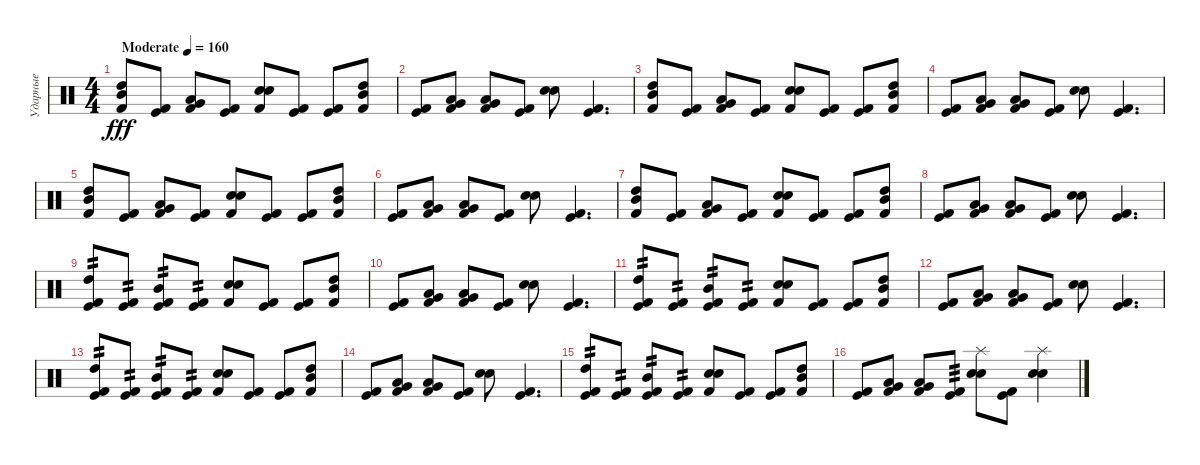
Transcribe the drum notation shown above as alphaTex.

\track ("Ударные" "Ударные") {instrument percussion}
\staff {score}
\articulation defaults
\ts (4 4)
\tempo (160 "Moderate")
\clef neutral
\ks c
("Kick (hit) 2" "Mid Tom (hit)" "High Tom (hit)").8{dy fff} ("Kick (hit) 2" "Kick (hit)").8 ("Kick (hit) 2" "Very Low Tom (hit)" "Low Tom (hit)").8 ("Kick (hit) 2" "Kick (hit)").8 ("Kick (hit) 2" "Electric Snare (hit)" "Snare (hit) 2").8 ("Kick (hit) 2" "Kick (hit)").8 ("Kick (hit) 2" "Kick (hit)").8 ("Kick (hit) 2" "Mid Tom (hit)" "High Tom (hit)").8 |
("Kick (hit) 2" "Kick (hit)").8 ("Kick (hit) 2" "Very Low Tom (hit)" "Low Tom (hit)").8 ("Kick (hit) 2" "Low Floor Tom (hit)" "Very Low Tom (hit)").8 ("Kick (hit) 2" "Kick (hit)").8 ("Electric Snare (hit)" "Snare (hit) 2").8 ("Kick (hit) 2" "Kick (hit)").4{d} |
("Kick (hit) 2" "Mid Tom (hit)" "High Tom (hit)").8 ("Kick (hit) 2" "Kick (hit)").8 ("Kick (hit) 2" "Very Low Tom (hit)" "Low Tom (hit)").8 ("Kick (hit) 2" "Kick (hit)").8 ("Kick (hit) 2" "Electric Snare (hit)" "Snare (hit) 2").8 ("Kick (hit) 2" "Kick (hit)").8 ("Kick (hit) 2" "Kick (hit)").8 ("Kick (hit) 2" "Mid Tom (hit)" "High Tom (hit)").8 |
("Kick (hit) 2" "Kick (hit)").8 ("Kick (hit) 2" "Very Low Tom (hit)" "Low Tom (hit)").8 ("Kick (hit) 2" "Low Floor Tom (hit)" "Very Low Tom (hit)").8 ("Kick (hit) 2" "Kick (hit)").8 ("Electric Snare (hit)" "Snare (hit) 2").8 ("Kick (hit) 2" "Kick (hit)").4{d} |
("Kick (hit) 2" "Mid Tom (hit)" "High Tom (hit)").8 ("Kick (hit) 2" "Kick (hit)").8 ("Kick (hit) 2" "Very Low Tom (hit)" "Low Tom (hit)").8 ("Kick (hit) 2" "Kick (hit)").8 ("Kick (hit) 2" "Electric Snare (hit)" "Snare (hit) 2").8 ("Kick (hit) 2" "Kick (hit)").8 ("Kick (hit) 2" "Kick (hit)").8 ("Kick (hit) 2" "Mid Tom (hit)" "High Tom (hit)").8 |
("Kick (hit) 2" "Kick (hit)").8 ("Kick (hit) 2" "Very Low Tom (hit)" "Low Tom (hit)").8 ("Kick (hit) 2" "Low Floor Tom (hit)" "Very Low Tom (hit)").8 ("Kick (hit) 2" "Kick (hit)").8 ("Electric Snare (hit)" "Snare (hit) 2").8 ("Kick (hit) 2" "Kick (hit)").4{d} |
("Kick (hit) 2" "Mid Tom (hit)" "High Tom (hit)").8 ("Kick (hit) 2" "Kick (hit)").8 ("Kick (hit) 2" "Very Low Tom (hit)" "Low Tom (hit)").8 ("Kick (hit) 2" "Kick (hit)").8 ("Kick (hit) 2" "Electric Snare (hit)" "Snare (hit) 2").8 ("Kick (hit) 2" "Kick (hit)").8 ("Kick (hit) 2" "Kick (hit)").8 ("Kick (hit) 2" "Mid Tom (hit)" "High Tom (hit)").8 |
("Kick (hit) 2" "Kick (hit)").8 ("Kick (hit) 2" "Very Low Tom (hit)" "Low Tom (hit)").8 ("Kick (hit) 2" "Low Floor Tom (hit)" "Very Low Tom (hit)").8 ("Kick (hit) 2" "Kick (hit)").8 ("Electric Snare (hit)" "Snare (hit) 2").8 ("Kick (hit) 2" "Kick (hit)").4{d} |
("Kick (hit) 2" "Kick (hit)" "High Tom (hit)").8{tp 2} ("Kick (hit) 2" "Kick (hit)").8{tp 2} ("Kick (hit) 2" "Kick (hit)" "Mid Tom (hit)").8{tp 2} ("Kick (hit) 2" "Kick (hit)").8{tp 2} ("Kick (hit) 2" "Electric Snare (hit)" "Snare (hit) 2").8 ("Kick (hit) 2" "Kick (hit)").8 ("Kick (hit) 2" "Kick (hit)").8 ("Kick (hit) 2" "Mid Tom (hit)" "High Tom (hit)").8 |
("Kick (hit) 2" "Kick (hit)").8 ("Kick (hit) 2" "Very Low Tom (hit)" "Low Tom (hit)").8 ("Kick (hit) 2" "Low Floor Tom (hit)" "Very Low Tom (hit)").8 ("Kick (hit) 2" "Kick (hit)").8 ("Electric Snare (hit)" "Snare (hit) 2").8 ("Kick (hit) 2" "Kick (hit)").4{d} |
("Kick (hit) 2" "Kick (hit)" "High Tom (hit)").8{tp 2} ("Kick (hit) 2" "Kick (hit)").8{tp 2} ("Kick (hit) 2" "Kick (hit)" "Mid Tom (hit)").8{tp 2} ("Kick (hit) 2" "Kick (hit)").8{tp 2} ("Kick (hit) 2" "Electric Snare (hit)" "Snare (hit) 2").8 ("Kick (hit) 2" "Kick (hit)").8 ("Kick (hit) 2" "Kick (hit)").8 ("Kick (hit) 2" "Mid Tom (hit)" "High Tom (hit)").8 |
("Kick (hit) 2" "Kick (hit)").8 ("Kick (hit) 2" "Very Low Tom (hit)" "Low Tom (hit)").8 ("Kick (hit) 2" "Low Floor Tom (hit)" "Very Low Tom (hit)").8 ("Kick (hit) 2" "Kick (hit)").8 ("Electric Snare (hit)" "Snare (hit) 2").8 ("Kick (hit) 2" "Kick (hit)").4{d} |
("Kick (hit) 2" "Kick (hit)" "High Tom (hit)").8{tp 2} ("Kick (hit) 2" "Kick (hit)").8{tp 2} ("Kick (hit) 2" "Kick (hit)" "Mid Tom (hit)").8{tp 2} ("Kick (hit) 2" "Kick (hit)").8{tp 2} ("Kick (hit) 2" "Electric Snare (hit)" "Snare (hit) 2").8 ("Kick (hit) 2" "Kick (hit)").8 ("Kick (hit) 2" "Kick (hit)").8 ("Kick (hit) 2" "Mid Tom (hit)" "High Tom (hit)").8 |
("Kick (hit) 2" "Kick (hit)").8 ("Kick (hit) 2" "Very Low Tom (hit)" "Low Tom (hit)").8 ("Kick (hit) 2" "Low Floor Tom (hit)" "Very Low Tom (hit)").8 ("Kick (hit) 2" "Kick (hit)").8 ("Electric Snare (hit)" "Snare (hit) 2").8 ("Kick (hit) 2" "Kick (hit)").4{d} |
("Kick (hit) 2" "Kick (hit)" "High Tom (hit)").8{tp 2} ("Kick (hit) 2" "Kick (hit)").8{tp 2} ("Kick (hit) 2" "Kick (hit)" "Mid Tom (hit)").8{tp 2} ("Kick (hit) 2" "Kick (hit)").8{tp 2} ("Kick (hit) 2" "Electric Snare (hit)" "Snare (hit) 2").8 ("Kick (hit) 2" "Kick (hit)").8 ("Kick (hit) 2" "Kick (hit)").8 ("Kick (hit) 2" "Mid Tom (hit)" "High Tom (hit)").8 |
("Kick (hit) 2" "Kick (hit)").8 ("Kick (hit) 2" "Very Low Tom (hit)" "Low Tom (hit)").8 ("Kick (hit) 2" "Low Floor Tom (hit)" "Very Low Tom (hit)").8 ("Kick (hit) 2" "Kick (hit)").8{tp 3} ("Electric Snare (hit)" "Snare (hit) 2" "Splash (hit)").8 ("Kick (hit) 2" "Kick (hit)").8 ("Electric Snare (hit)" "Snare (hit) 2" "Splash (hit)").4
